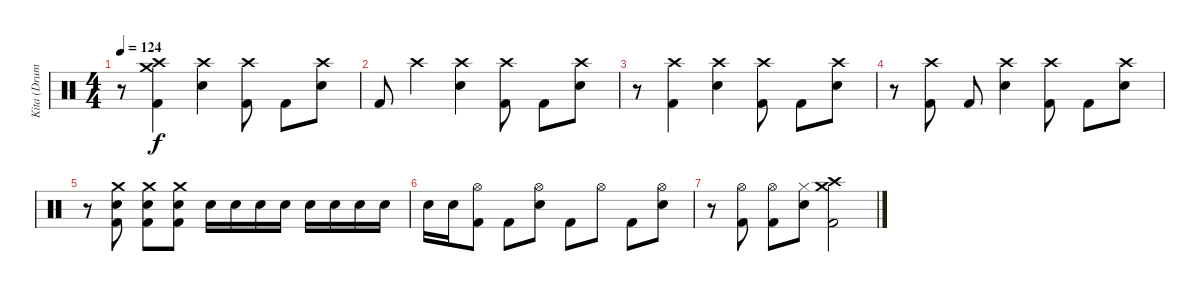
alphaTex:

\track ("Kita (Drums)" "Kita (Drum") {instrument percussion}
\staff {score}
\articulation defaults
\ts (4 4)
\tempo 124
\clef neutral
\ks c
r.8{dy f} ("Crash medium (hit)" "Crash high (hit)" "Kick (hit) 2").4 ("Crash high (hit)" "Electric Snare (hit)").4 ("Crash high (hit)" "Kick (hit) 2").8 "Kick (hit) 2".8 ("Crash high (hit)" "Electric Snare (hit)").8 |
"Kick (hit) 2".8 "Crash high (hit)".4 ("Crash high (hit)" "Electric Snare (hit)").4 ("Crash high (hit)" "Kick (hit) 2").8 "Kick (hit) 2".8 ("Crash high (hit)" "Electric Snare (hit)").8 |
r.8 ("Crash high (hit)" "Kick (hit) 2").4 ("Crash high (hit)" "Electric Snare (hit)").4 ("Crash high (hit)" "Kick (hit) 2").8 "Kick (hit) 2".8 ("Crash high (hit)" "Electric Snare (hit)").8 |
r.8 ("Crash high (hit)" "Kick (hit) 2").8 "Kick (hit) 2".8 ("Crash high (hit)" "Electric Snare (hit)").4 ("Crash high (hit)" "Kick (hit) 2").8 "Kick (hit) 2".8 ("Crash high (hit)" "Electric Snare (hit)").8 |
r.8 ("Crash medium (hit)" "Electric Snare (hit)" "Kick (hit) 2").8 ("Crash medium (hit)" "Electric Snare (hit)" "Kick (hit) 2").8 ("Crash medium (hit)" "Electric Snare (hit)" "Kick (hit) 2").8 "Electric Snare (hit)".16 "Electric Snare (hit)".16 "Electric Snare (hit)".16 "Electric Snare (hit)".16 "Electric Snare (hit)".16 "Electric Snare (hit)".16 "Electric Snare (hit)".16 "Electric Snare (hit)".16 |
"Electric Snare (hit)".16 "Electric Snare (hit)".16 ("Hi-Hat (open)" "Kick (hit) 2").8 "Kick (hit) 2".8 ("Hi-Hat (open)" "Electric Snare (hit)").8 "Kick (hit) 2".8 "Hi-Hat (open)".8 "Kick (hit) 2".8 ("Hi-Hat (open)" "Electric Snare (hit)").8 |
r.8 ("Hi-Hat (open)" "Kick (hit) 2").8 ("Hi-Hat (open)" "Kick (hit) 2").8 ("Hi-Hat (closed)" "Electric Snare (hit)").8 ("Crash medium (hit)" "Crash high (hit)" "Kick (hit) 2").2
